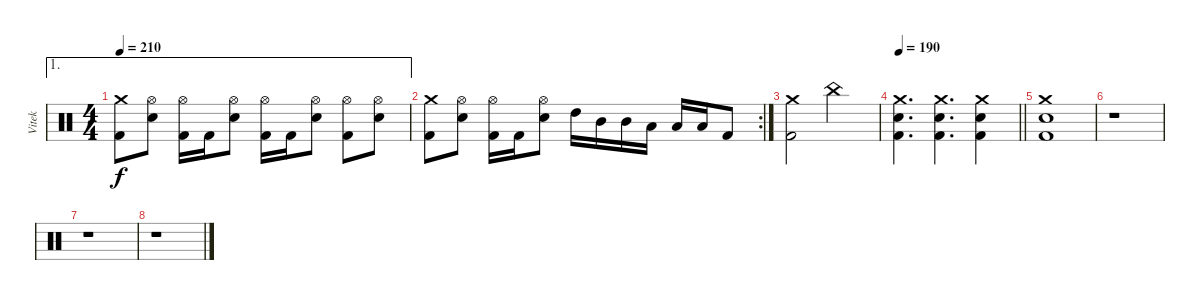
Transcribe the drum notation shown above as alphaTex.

\track ("Vitek" "Vitek") {instrument percussion}
\staff {score}
\articulation defaults
\ae 1
\ts (4 4)
\tempo 210
\clef neutral
\ks c
("Crash medium (hit)" "Kick (hit) 2").8{dy f} ("Hi-Hat (open)" "Electric Snare (hit)").8 ("Hi-Hat (open)" "Kick (hit) 2").16 "Kick (hit) 2".16 ("Hi-Hat (open)" "Electric Snare (hit)").8 ("Hi-Hat (open)" "Kick (hit) 2").16 "Kick (hit) 2".16 ("Hi-Hat (open)" "Electric Snare (hit)").8 ("Hi-Hat (open)" "Kick (hit) 2").8 ("Hi-Hat (open)" "Electric Snare (hit)").8 |
\rc 2
("Crash medium (hit)" "Kick (hit) 2").8 ("Hi-Hat (open)" "Electric Snare (hit)").8 ("Hi-Hat (open)" "Kick (hit) 2").16 "Kick (hit) 2".16 ("Hi-Hat (open)" "Electric Snare (hit)").8 "High Tom (hit)".16 "Mid Tom (hit)".16 "Mid Tom (hit)".16 "Low Tom (hit)".16 "Low Tom (hit)".16 "Low Tom (hit)".16 "Kick (hit) 2".8 |
("Crash medium (hit)" "Kick (hit) 2").2 "China (hit)".2 |
\tempo 190
\barLineRight lightlight
("Crash medium (hit)" "Electric Snare (hit)" "Kick (hit) 2").4{d} ("Crash medium (hit)" "Electric Snare (hit)" "Kick (hit) 2").4{d} ("Crash medium (hit)" "Electric Snare (hit)" "Kick (hit) 2").4 |
("Crash medium (hit)" "Electric Snare (hit)" "Kick (hit) 2").1 |
r.1 |
r.1 |
r.1
